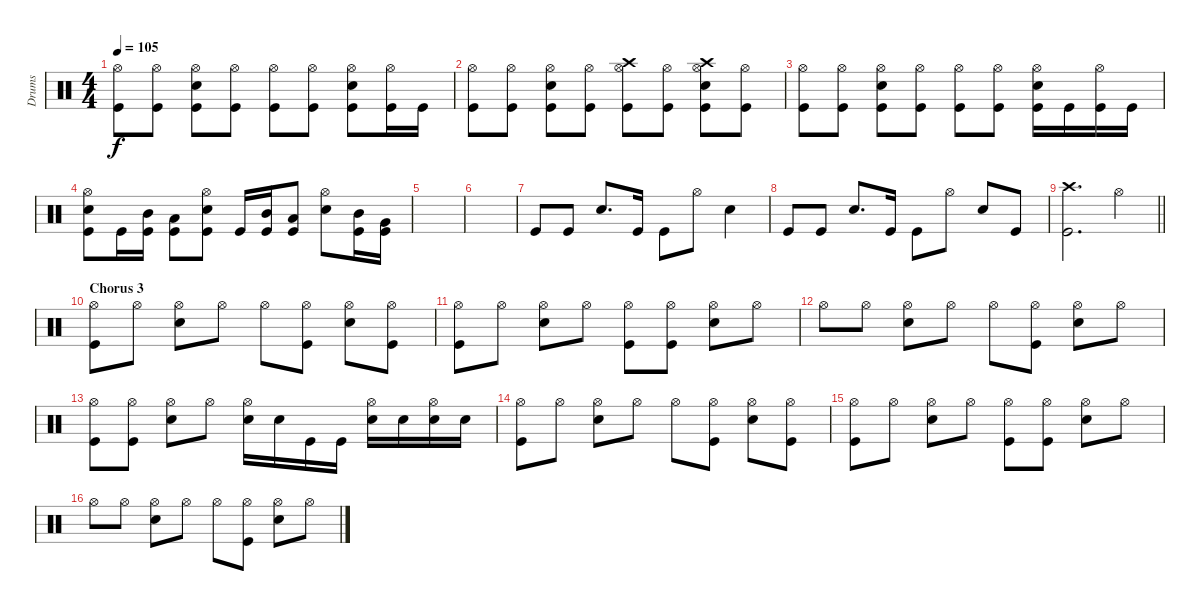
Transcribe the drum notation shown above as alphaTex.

\track ("Drums" "Drums") {instrument percussion}
\staff {score}
\articulation defaults
\ts (4 4)
\tempo 105
\clef neutral
\ks c
("Hi-Hat (open)" "Kick (hit)").8{dy f} ("Hi-Hat (open)" "Kick (hit)").8 ("Snare (hit) 2" "Hi-Hat (open)" "Kick (hit)").8 ("Hi-Hat (open)" "Kick (hit)").8 ("Hi-Hat (open)" "Kick (hit)").8 ("Hi-Hat (open)" "Kick (hit)").8 ("Snare (hit) 2" "Hi-Hat (open)" "Kick (hit)").8 ("Hi-Hat (open)" "Kick (hit)").16 "Kick (hit)".16 |
("Hi-Hat (open)" "Kick (hit)").8 ("Hi-Hat (open)" "Kick (hit)").8 ("Snare (hit) 2" "Hi-Hat (open)" "Kick (hit)").8 ("Hi-Hat (open)" "Kick (hit)").8 ("Crash high (hit)" "Hi-Hat (open)" "Kick (hit)").8 ("Hi-Hat (open)" "Kick (hit)").8 ("Crash high (hit)" "Snare (hit) 2" "Hi-Hat (open)" "Kick (hit)").8 ("Hi-Hat (open)" "Kick (hit)").8 |
("Hi-Hat (open)" "Kick (hit)").8 ("Hi-Hat (open)" "Kick (hit)").8 ("Snare (hit) 2" "Hi-Hat (open)" "Kick (hit)").8 ("Hi-Hat (open)" "Kick (hit)").8 ("Hi-Hat (open)" "Kick (hit)").8 ("Hi-Hat (open)" "Kick (hit)").8 ("Snare (hit) 2" "Hi-Hat (open)" "Kick (hit)").16 "Kick (hit)".16 ("Kick (hit)" "Hi-Hat (open)").16 "Kick (hit)".16 |
("Hi-Hat (open)" "Snare (hit) 2" "Kick (hit)").8 "Kick (hit)".16 ("Mid Tom (hit)" "Kick (hit)").16 ("Kick (hit)" "Low Tom (hit)").8 ("Hi-Hat (open)" "Snare (hit) 2" "Kick (hit)").8 "Kick (hit)".16 ("Mid Tom (hit)" "Kick (hit)").16 ("Kick (hit)" "Low Tom (hit)").8 ("Snare (hit) 2" "Hi-Hat (open)").8 ("Kick (hit)" "Mid Tom (hit)").16 ("Very Low Tom (hit)" "Kick (hit)").16 |
|
|
"Kick (hit)".8 "Kick (hit)".8 "Snare (hit) 2".8{d} "Kick (hit)".16 "Kick (hit)".8 "Hi-Hat (open)".8 "Snare (hit) 2".4 |
"Kick (hit)".8 "Kick (hit)".8 "Snare (hit) 2".8{d} "Kick (hit)".16 "Kick (hit)".8 "Hi-Hat (open)".8 "Snare (hit) 2".8 "Kick (hit)".8 |
\barLineRight lightlight
("Kick (hit)" "Crash high (hit)").2{d} "Hi-Hat (open)".4 |
\section ("" "Chorus 3")
("Kick (hit)" "Hi-Hat (open)").8 "Hi-Hat (open)".8 ("Snare (hit) 2" "Hi-Hat (open)").8 "Hi-Hat (open)".8 "Hi-Hat (open)".8 ("Kick (hit)" "Hi-Hat (open)").8 ("Snare (hit) 2" "Hi-Hat (open)").8 ("Kick (hit)" "Hi-Hat (open)").8 |
("Kick (hit)" "Hi-Hat (open)").8 "Hi-Hat (open)".8 ("Snare (hit) 2" "Hi-Hat (open)").8 "Hi-Hat (open)".8 ("Kick (hit)" "Hi-Hat (open)").8 ("Kick (hit)" "Hi-Hat (open)").8 ("Snare (hit) 2" "Hi-Hat (open)").8 "Hi-Hat (open)".8 |
"Hi-Hat (open)".8 "Hi-Hat (open)".8 ("Snare (hit) 2" "Hi-Hat (open)").8 "Hi-Hat (open)".8 "Hi-Hat (open)".8 ("Kick (hit)" "Hi-Hat (open)").8 ("Snare (hit) 2" "Hi-Hat (open)").8 "Hi-Hat (open)".8 |
("Kick (hit)" "Hi-Hat (open)").8 ("Kick (hit)" "Hi-Hat (open)").8 ("Snare (hit) 2" "Hi-Hat (open)").8 "Hi-Hat (open)".8 ("Snare (hit) 2" "Hi-Hat (open)").16 "Snare (hit) 2".16 "Kick (hit)".16 "Kick (hit)".16 ("Snare (hit) 2" "Hi-Hat (open)").16 "Snare (hit) 2".16 ("Snare (hit) 2" "Hi-Hat (open)").16 "Snare (hit) 2".16 |
("Kick (hit)" "Hi-Hat (open)").8 "Hi-Hat (open)".8 ("Snare (hit) 2" "Hi-Hat (open)").8 "Hi-Hat (open)".8 "Hi-Hat (open)".8 ("Kick (hit)" "Hi-Hat (open)").8 ("Snare (hit) 2" "Hi-Hat (open)").8 ("Kick (hit)" "Hi-Hat (open)").8 |
("Kick (hit)" "Hi-Hat (open)").8 "Hi-Hat (open)".8 ("Snare (hit) 2" "Hi-Hat (open)").8 "Hi-Hat (open)".8 ("Kick (hit)" "Hi-Hat (open)").8 ("Kick (hit)" "Hi-Hat (open)").8 ("Snare (hit) 2" "Hi-Hat (open)").8 "Hi-Hat (open)".8 |
"Hi-Hat (open)".8 "Hi-Hat (open)".8 ("Snare (hit) 2" "Hi-Hat (open)").8 "Hi-Hat (open)".8 "Hi-Hat (open)".8 ("Kick (hit)" "Hi-Hat (open)").8 ("Snare (hit) 2" "Hi-Hat (open)").8 "Hi-Hat (open)".8
